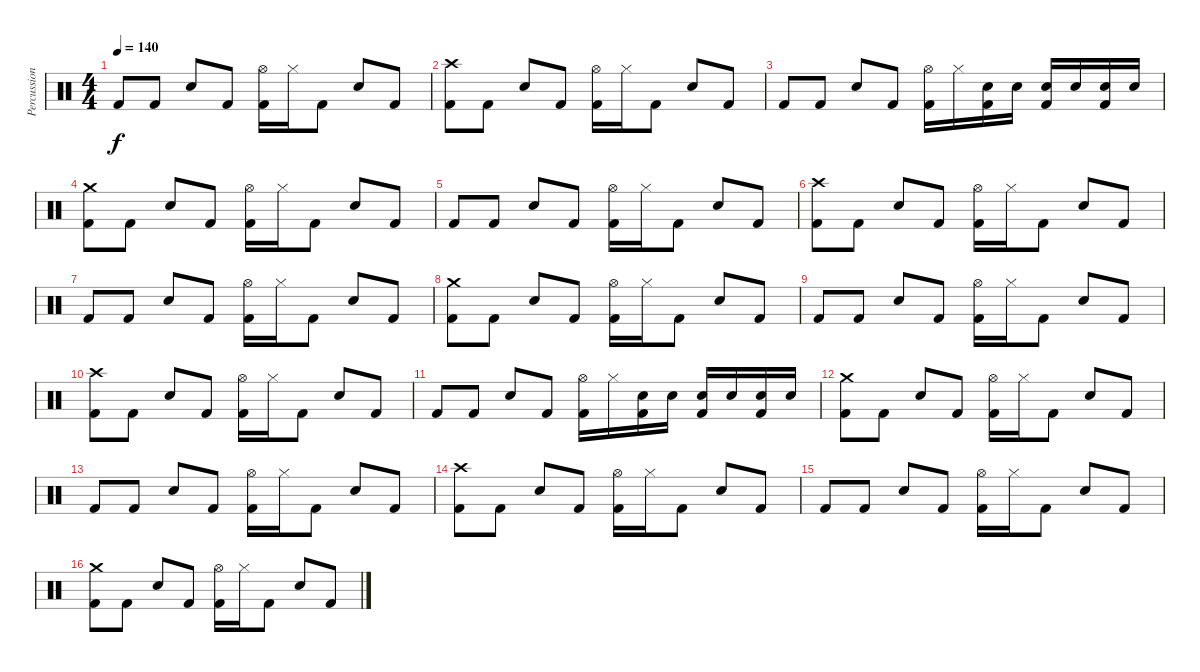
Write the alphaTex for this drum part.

\track ("Percussion" "Percussion") {instrument percussion}
\staff {score}
\articulation defaults
\ts (4 4)
\tempo 140
\clef neutral
\ks c "Kick (hit) 2".8{dy f} "Kick (hit) 2".8 "Snare (hit) 2".8 "Kick (hit) 2".8
("Hi-Hat (open)" "Kick (hit) 2").16 "Hi-Hat (closed)".16 "Kick (hit) 2".8 "Snare (hit) 2".8 "Kick (hit) 2".8 |
("Crash high (hit)" "Kick (hit) 2").8 "Kick (hit) 2".8 "Snare (hit) 2".8 "Kick (hit) 2".8 ("Hi-Hat (open)" "Kick (hit) 2").16 "Hi-Hat (closed)".16 "Kick (hit) 2".8 "Snare (hit) 2".8 "Kick (hit) 2".8 |
"Kick (hit) 2".8 "Kick (hit) 2".8 "Snare (hit) 2".8 "Kick (hit) 2".8 ("Hi-Hat (open)" "Kick (hit) 2").16 "Hi-Hat (closed)".16 ("Snare (hit) 2" "Kick (hit) 2").16 "Snare (hit) 2".16 ("Snare (hit) 2" "Kick (hit) 2").16 "Snare (hit) 2".16 ("Snare (hit) 2" "Kick (hit) 2").16 "Snare (hit) 2".16 |
("Crash medium (hit)" "Kick (hit) 2").8 "Kick (hit) 2".8 "Snare (hit) 2".8 "Kick (hit) 2".8 ("Hi-Hat (open)" "Kick (hit) 2").16 "Hi-Hat (closed)".16 "Kick (hit) 2".8 "Snare (hit) 2".8 "Kick (hit) 2".8 |
"Kick (hit) 2".8 "Kick (hit) 2".8 "Snare (hit) 2".8 "Kick (hit) 2".8 ("Hi-Hat (open)" "Kick (hit) 2").16 "Hi-Hat (closed)".16 "Kick (hit) 2".8 "Snare (hit) 2".8 "Kick (hit) 2".8 |
("Crash high (hit)" "Kick (hit) 2").8 "Kick (hit) 2".8 "Snare (hit) 2".8 "Kick (hit) 2".8 ("Hi-Hat (open)" "Kick (hit) 2").16 "Hi-Hat (closed)".16 "Kick (hit) 2".8 "Snare (hit) 2".8 "Kick (hit) 2".8 |
"Kick (hit) 2".8 "Kick (hit) 2".8 "Snare (hit) 2".8 "Kick (hit) 2".8 ("Hi-Hat (open)" "Kick (hit) 2").16 "Hi-Hat (closed)".16 "Kick (hit) 2".8 "Snare (hit) 2".8 "Kick (hit) 2".8 |
("Crash medium (hit)" "Kick (hit) 2").8 "Kick (hit) 2".8 "Snare (hit) 2".8 "Kick (hit) 2".8 ("Hi-Hat (open)" "Kick (hit) 2").16 "Hi-Hat (closed)".16 "Kick (hit) 2".8 "Snare (hit) 2".8 "Kick (hit) 2".8 |
"Kick (hit) 2".8 "Kick (hit) 2".8 "Snare (hit) 2".8 "Kick (hit) 2".8 ("Hi-Hat (open)" "Kick (hit) 2").16 "Hi-Hat (closed)".16 "Kick (hit) 2".8 "Snare (hit) 2".8 "Kick (hit) 2".8 |
("Crash high (hit)" "Kick (hit) 2").8 "Kick (hit) 2".8 "Snare (hit) 2".8 "Kick (hit) 2".8 ("Hi-Hat (open)" "Kick (hit) 2").16 "Hi-Hat (closed)".16 "Kick (hit) 2".8 "Snare (hit) 2".8 "Kick (hit) 2".8 |
"Kick (hit) 2".8 "Kick (hit) 2".8 "Snare (hit) 2".8 "Kick (hit) 2".8 ("Hi-Hat (open)" "Kick (hit) 2").16 "Hi-Hat (closed)".16 ("Snare (hit) 2" "Kick (hit) 2").16 "Snare (hit) 2".16 ("Snare (hit) 2" "Kick (hit) 2").16 "Snare (hit) 2".16 ("Snare (hit) 2" "Kick (hit) 2").16 "Snare (hit) 2".16 |
("Crash medium (hit)" "Kick (hit) 2").8 "Kick (hit) 2".8 "Snare (hit) 2".8 "Kick (hit) 2".8 ("Hi-Hat (open)" "Kick (hit) 2").16 "Hi-Hat (closed)".16 "Kick (hit) 2".8 "Snare (hit) 2".8 "Kick (hit) 2".8 |
"Kick (hit) 2".8 "Kick (hit) 2".8 "Snare (hit) 2".8 "Kick (hit) 2".8 ("Hi-Hat (open)" "Kick (hit) 2").16 "Hi-Hat (closed)".16 "Kick (hit) 2".8 "Snare (hit) 2".8 "Kick (hit) 2".8 |
("Crash high (hit)" "Kick (hit) 2").8 "Kick (hit) 2".8 "Snare (hit) 2".8 "Kick (hit) 2".8 ("Hi-Hat (open)" "Kick (hit) 2").16 "Hi-Hat (closed)".16 "Kick (hit) 2".8 "Snare (hit) 2".8 "Kick (hit) 2".8 |
"Kick (hit) 2".8 "Kick (hit) 2".8 "Snare (hit) 2".8 "Kick (hit) 2".8 ("Hi-Hat (open)" "Kick (hit) 2").16 "Hi-Hat (closed)".16 "Kick (hit) 2".8 "Snare (hit) 2".8 "Kick (hit) 2".8 |
("Crash medium (hit)" "Kick (hit) 2").8 "Kick (hit) 2".8 "Snare (hit) 2".8 "Kick (hit) 2".8 ("Hi-Hat (open)" "Kick (hit) 2").16 "Hi-Hat (closed)".16 "Kick (hit) 2".8 "Snare (hit) 2".8 "Kick (hit) 2".8
